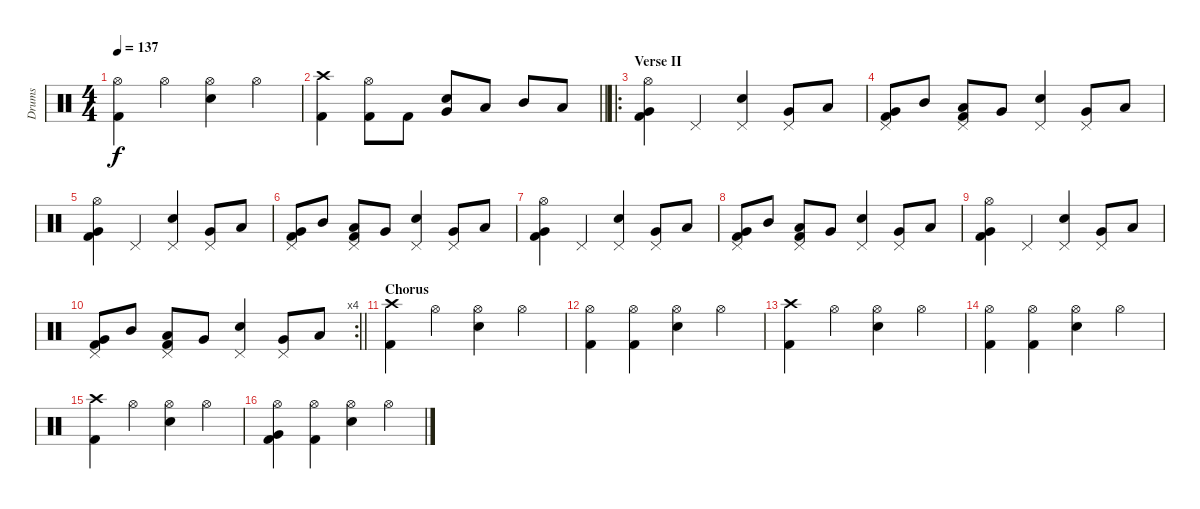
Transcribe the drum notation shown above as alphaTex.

\track ("Drums" "Drums") {instrument percussion}
\staff {score}
\articulation defaults
\ts (4 4)
\tempo 137
\clef neutral
\ks c
("Hi-Hat (open)" "Kick (hit) 2").4{dy f} "Hi-Hat (open)".4 ("Hi-Hat (open)" "Snare (hit) 2").4 "Hi-Hat (open)".4 |
\barLineRight lightlight
("Crash high (hit)" "Kick (hit) 2").4 ("Hi-Hat (open)" "Kick (hit) 2").8 "Kick (hit) 2".8 ("Snare (hit) 2" "Very Low Tom (hit)").8 "Low Tom (hit)".8 "Mid Tom (hit)".8 "Low Tom (hit)".8 |
\ro
\section ("" "Verse II")
("Hi-Hat (open)" "Kick (hit) 2" "Very Low Tom (hit)").4 "Pedal Hi-Hat (hit)".4 ("Pedal Hi-Hat (hit)" "Snare (hit) 2").4 ("Pedal Hi-Hat (hit)" "Very Low Tom (hit)").8 "Low Tom (hit)".8 |
("Pedal Hi-Hat (hit)" "Kick (hit) 2" "Very Low Tom (hit)").8 "Mid Tom (hit)".8 ("Pedal Hi-Hat (hit)" "Kick (hit) 2" "Low Tom (hit)").8 "Very Low Tom (hit)".8 ("Pedal Hi-Hat (hit)" "Snare (hit) 2").4 ("Pedal Hi-Hat (hit)" "Very Low Tom (hit)").8 "Low Tom (hit)".8 |
("Hi-Hat (open)" "Kick (hit) 2" "Very Low Tom (hit)").4 "Pedal Hi-Hat (hit)".4 ("Pedal Hi-Hat (hit)" "Snare (hit) 2").4 ("Pedal Hi-Hat (hit)" "Very Low Tom (hit)").8 "Low Tom (hit)".8 |
("Pedal Hi-Hat (hit)" "Kick (hit) 2" "Very Low Tom (hit)").8 "Mid Tom (hit)".8 ("Pedal Hi-Hat (hit)" "Kick (hit) 2" "Low Tom (hit)").8 "Very Low Tom (hit)".8 ("Pedal Hi-Hat (hit)" "Snare (hit) 2").4 ("Pedal Hi-Hat (hit)" "Very Low Tom (hit)").8 "Low Tom (hit)".8 |
("Hi-Hat (open)" "Kick (hit) 2" "Very Low Tom (hit)").4 "Pedal Hi-Hat (hit)".4 ("Pedal Hi-Hat (hit)" "Snare (hit) 2").4 ("Pedal Hi-Hat (hit)" "Very Low Tom (hit)").8 "Low Tom (hit)".8 |
("Pedal Hi-Hat (hit)" "Kick (hit) 2" "Very Low Tom (hit)").8 "Mid Tom (hit)".8 ("Pedal Hi-Hat (hit)" "Kick (hit) 2" "Low Tom (hit)").8 "Very Low Tom (hit)".8 ("Pedal Hi-Hat (hit)" "Snare (hit) 2").4 ("Pedal Hi-Hat (hit)" "Very Low Tom (hit)").8 "Low Tom (hit)".8 |
("Hi-Hat (open)" "Kick (hit) 2" "Very Low Tom (hit)").4 "Pedal Hi-Hat (hit)".4 ("Pedal Hi-Hat (hit)" "Snare (hit) 2").4 ("Pedal Hi-Hat (hit)" "Very Low Tom (hit)").8 "Low Tom (hit)".8 |
\rc 4
\barLineRight lightlight
("Pedal Hi-Hat (hit)" "Kick (hit) 2" "Very Low Tom (hit)").8 "Mid Tom (hit)".8 ("Pedal Hi-Hat (hit)" "Kick (hit) 2" "Low Tom (hit)").8 "Very Low Tom (hit)".8 ("Pedal Hi-Hat (hit)" "Snare (hit) 2").4 ("Pedal Hi-Hat (hit)" "Very Low Tom (hit)").8 "Low Tom (hit)".8 |
\section ("" "Chorus")
("Crash high (hit)" "Kick (hit) 2").4 "Hi-Hat (open)".4 ("Hi-Hat (open)" "Snare (hit) 2").4 "Hi-Hat (open)".4 |
("Hi-Hat (open)" "Kick (hit) 2").4 ("Hi-Hat (open)" "Kick (hit) 2").4 ("Hi-Hat (open)" "Snare (hit) 2").4 "Hi-Hat (open)".4 |
("Crash high (hit)" "Kick (hit) 2").4 "Hi-Hat (open)".4 ("Hi-Hat (open)" "Snare (hit) 2").4 "Hi-Hat (open)".4 |
("Hi-Hat (open)" "Kick (hit) 2").4 ("Hi-Hat (open)" "Kick (hit) 2").4 ("Hi-Hat (open)" "Snare (hit) 2").4 "Hi-Hat (open)".4 |
("Crash high (hit)" "Kick (hit) 2").4 "Hi-Hat (open)".4 ("Hi-Hat (open)" "Snare (hit) 2").4 "Hi-Hat (open)".4 |
("Hi-Hat (open)" "Kick (hit) 2" "Very Low Tom (hit)").4 ("Hi-Hat (open)" "Kick (hit) 2").4 ("Hi-Hat (open)" "Snare (hit) 2").4 "Hi-Hat (open)".4
